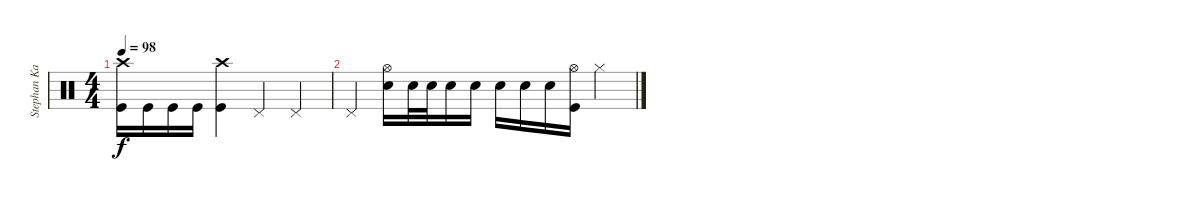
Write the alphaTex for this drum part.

\track ("Stephan Kaufmann" "Stephan Ka") {instrument percussion}
\staff {score}
\articulation defaults
\ts (4 4)
\tempo 98
\clef neutral
\ks c
("Kick (hit)" "Crash high (hit)").16{dy f} "Kick (hit)".16 "Kick (hit)".16 "Kick (hit)".16 ("Crash high (hit)" "Kick (hit)").4 "Pedal Hi-Hat (hit)".4 "Pedal Hi-Hat (hit)".4 |
"Pedal Hi-Hat (hit)".4 ("Hi-Hat (open)" "Snare (hit) 2").16 "Snare (hit) 2".32 "Snare (hit) 2".32 "Snare (hit) 2".16 "Snare (hit) 2".16 "Snare (hit) 2".16 "Snare (hit) 2".16 "Snare (hit) 2".16 ("Hi-Hat (open)" "Kick (hit)").16 "Hi-Hat (closed)".4
